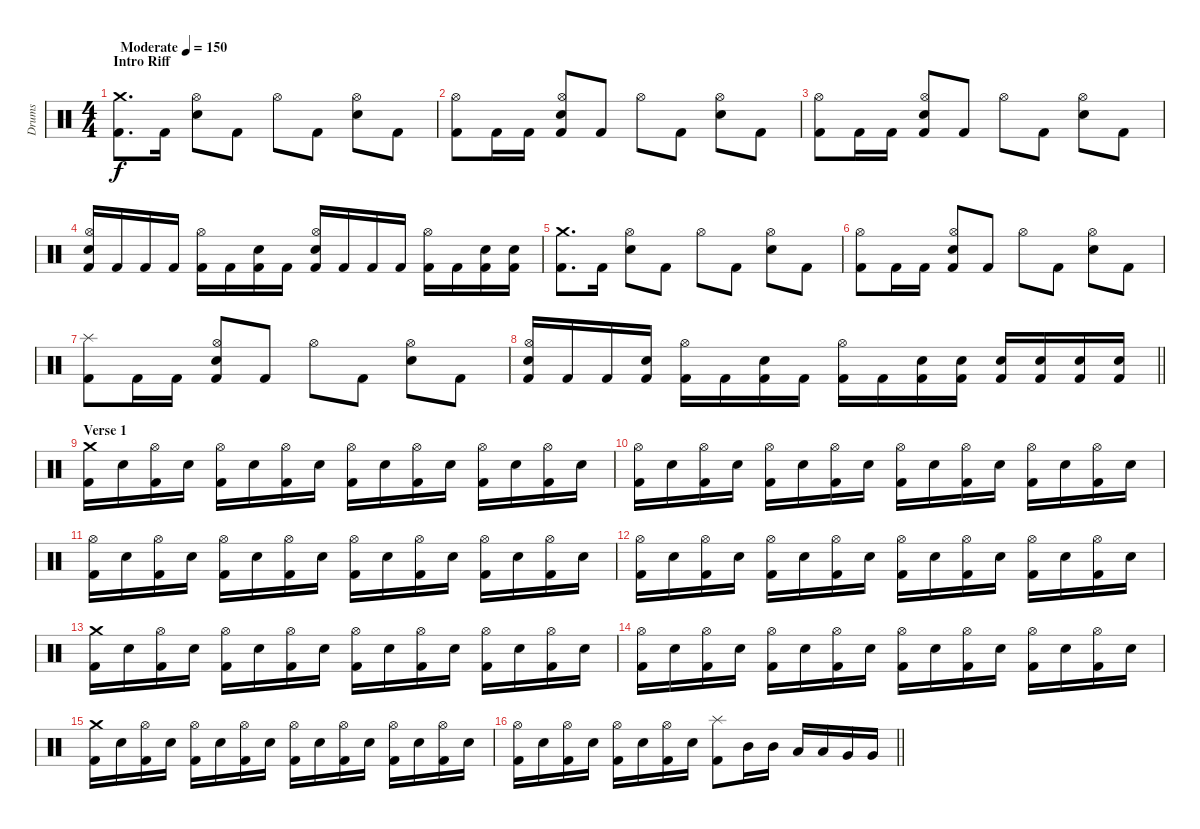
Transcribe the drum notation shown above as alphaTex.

\track ("Drums" "Drums") {instrument percussion}
\staff {score}
\articulation defaults
\ts (4 4)
\section ("" "Intro Riff")
\tempo (150 "Moderate")
\clef neutral
\ks c
("Crash medium (hit)" "Kick (hit) 2").8{d dy f} "Kick (hit) 2".16 ("Hi-Hat (open)" "Snare (hit) 2").8 "Kick (hit) 2".8 "Hi-Hat (open)".8 "Kick (hit) 2".8 ("Hi-Hat (open)" "Snare (hit) 2").8 "Kick (hit) 2".8 |
("Hi-Hat (open)" "Kick (hit) 2").8 "Kick (hit) 2".16 "Kick (hit) 2".16 ("Hi-Hat (open)" "Snare (hit) 2" "Kick (hit) 2").8 "Kick (hit) 2".8 "Hi-Hat (open)".8 "Kick (hit) 2".8 ("Hi-Hat (open)" "Snare (hit) 2").8 "Kick (hit) 2".8 |
("Hi-Hat (open)" "Kick (hit) 2").8 "Kick (hit) 2".16 "Kick (hit) 2".16 ("Hi-Hat (open)" "Snare (hit) 2" "Kick (hit) 2").8 "Kick (hit) 2".8 "Hi-Hat (open)".8 "Kick (hit) 2".8 ("Hi-Hat (open)" "Snare (hit) 2").8 "Kick (hit) 2".8 |
("Hi-Hat (open)" "Snare (hit) 2" "Kick (hit) 2").16 "Kick (hit) 2".16 "Kick (hit) 2".16 "Kick (hit) 2".16 ("Hi-Hat (open)" "Kick (hit) 2").16 "Kick (hit) 2".16 ("Snare (hit) 2" "Kick (hit) 2").16 "Kick (hit) 2".16 ("Hi-Hat (open)" "Snare (hit) 2" "Kick (hit) 2").16 "Kick (hit) 2".16 "Kick (hit) 2".16 "Kick (hit) 2".16 ("Hi-Hat (open)" "Kick (hit) 2").16 "Kick (hit) 2".16 ("Snare (hit) 2" "Kick (hit) 2").16 ("Snare (hit) 2" "Kick (hit) 2").16 |
("Crash medium (hit)" "Kick (hit) 2").8{d} "Kick (hit) 2".16 ("Hi-Hat (open)" "Snare (hit) 2").8 "Kick (hit) 2".8 "Hi-Hat (open)".8 "Kick (hit) 2".8 ("Hi-Hat (open)" "Snare (hit) 2").8 "Kick (hit) 2".8 |
("Hi-Hat (open)" "Kick (hit) 2").8 "Kick (hit) 2".16 "Kick (hit) 2".16 ("Hi-Hat (open)" "Snare (hit) 2" "Kick (hit) 2").8 "Kick (hit) 2".8 "Hi-Hat (open)".8 "Kick (hit) 2".8 ("Hi-Hat (open)" "Snare (hit) 2").8 "Kick (hit) 2".8 |
("Splash (hit)" "Kick (hit) 2").8 "Kick (hit) 2".16 "Kick (hit) 2".16 ("Hi-Hat (open)" "Snare (hit) 2" "Kick (hit) 2").8 "Kick (hit) 2".8 "Hi-Hat (open)".8 "Kick (hit) 2".8 ("Hi-Hat (open)" "Snare (hit) 2").8 "Kick (hit) 2".8 |
\barLineRight lightlight
("Hi-Hat (open)" "Snare (hit) 2" "Kick (hit) 2").16 "Kick (hit) 2".16 "Kick (hit) 2".16 ("Snare (hit) 2" "Kick (hit) 2").16 ("Hi-Hat (open)" "Kick (hit) 2").16 "Kick (hit) 2".16 ("Snare (hit) 2" "Kick (hit) 2").16 "Kick (hit) 2".16 ("Hi-Hat (open)" "Kick (hit) 2").16 "Kick (hit) 2".16 ("Snare (hit) 2" "Kick (hit) 2").16 ("Snare (hit) 2" "Kick (hit) 2").16 ("Snare (hit) 2" "Kick (hit) 2").16 ("Snare (hit) 2" "Kick (hit) 2").16 ("Snare (hit) 2" "Kick (hit) 2").16 ("Snare (hit) 2" "Kick (hit) 2").16 |
\section ("" "Verse 1")
("Crash medium (hit)" "Kick (hit) 2").16 "Snare (hit) 2".16 ("Hi-Hat (open)" "Kick (hit) 2").16 "Snare (hit) 2".16 ("Hi-Hat (open)" "Kick (hit) 2").16 "Snare (hit) 2".16 ("Hi-Hat (open)" "Kick (hit) 2").16 "Snare (hit) 2".16 ("Hi-Hat (open)" "Kick (hit) 2").16 "Snare (hit) 2".16 ("Hi-Hat (open)" "Kick (hit) 2").16 "Snare (hit) 2".16 ("Hi-Hat (open)" "Kick (hit) 2").16 "Snare (hit) 2".16 ("Hi-Hat (open)" "Kick (hit) 2").16 "Snare (hit) 2".16 |
("Hi-Hat (open)" "Kick (hit) 2").16 "Snare (hit) 2".16 ("Hi-Hat (open)" "Kick (hit) 2").16 "Snare (hit) 2".16 ("Hi-Hat (open)" "Kick (hit) 2").16 "Snare (hit) 2".16 ("Hi-Hat (open)" "Kick (hit) 2").16 "Snare (hit) 2".16 ("Hi-Hat (open)" "Kick (hit) 2").16 "Snare (hit) 2".16 ("Hi-Hat (open)" "Kick (hit) 2").16 "Snare (hit) 2".16 ("Hi-Hat (open)" "Kick (hit) 2").16 "Snare (hit) 2".16 ("Hi-Hat (open)" "Kick (hit) 2").16 "Snare (hit) 2".16 |
("Hi-Hat (open)" "Kick (hit) 2").16 "Snare (hit) 2".16 ("Hi-Hat (open)" "Kick (hit) 2").16 "Snare (hit) 2".16 ("Hi-Hat (open)" "Kick (hit) 2").16 "Snare (hit) 2".16 ("Hi-Hat (open)" "Kick (hit) 2").16 "Snare (hit) 2".16 ("Hi-Hat (open)" "Kick (hit) 2").16 "Snare (hit) 2".16 ("Hi-Hat (open)" "Kick (hit) 2").16 "Snare (hit) 2".16 ("Hi-Hat (open)" "Kick (hit) 2").16 "Snare (hit) 2".16 ("Hi-Hat (open)" "Kick (hit) 2").16 "Snare (hit) 2".16 |
("Hi-Hat (open)" "Kick (hit) 2").16 "Snare (hit) 2".16 ("Hi-Hat (open)" "Kick (hit) 2").16 "Snare (hit) 2".16 ("Hi-Hat (open)" "Kick (hit) 2").16 "Snare (hit) 2".16 ("Hi-Hat (open)" "Kick (hit) 2").16 "Snare (hit) 2".16 ("Hi-Hat (open)" "Kick (hit) 2").16 "Snare (hit) 2".16 ("Hi-Hat (open)" "Kick (hit) 2").16 "Snare (hit) 2".16 ("Hi-Hat (open)" "Kick (hit) 2").16 "Snare (hit) 2".16 ("Hi-Hat (open)" "Kick (hit) 2").16 "Snare (hit) 2".16 |
("Crash medium (hit)" "Kick (hit) 2").16 "Snare (hit) 2".16 ("Hi-Hat (open)" "Kick (hit) 2").16 "Snare (hit) 2".16 ("Hi-Hat (open)" "Kick (hit) 2").16 "Snare (hit) 2".16 ("Hi-Hat (open)" "Kick (hit) 2").16 "Snare (hit) 2".16 ("Hi-Hat (open)" "Kick (hit) 2").16 "Snare (hit) 2".16 ("Hi-Hat (open)" "Kick (hit) 2").16 "Snare (hit) 2".16 ("Hi-Hat (open)" "Kick (hit) 2").16 "Snare (hit) 2".16 ("Hi-Hat (open)" "Kick (hit) 2").16 "Snare (hit) 2".16 |
("Hi-Hat (open)" "Kick (hit) 2").16 "Snare (hit) 2".16 ("Hi-Hat (open)" "Kick (hit) 2").16 "Snare (hit) 2".16 ("Hi-Hat (open)" "Kick (hit) 2").16 "Snare (hit) 2".16 ("Hi-Hat (open)" "Kick (hit) 2").16 "Snare (hit) 2".16 ("Hi-Hat (open)" "Kick (hit) 2").16 "Snare (hit) 2".16 ("Hi-Hat (open)" "Kick (hit) 2").16 "Snare (hit) 2".16 ("Hi-Hat (open)" "Kick (hit) 2").16 "Snare (hit) 2".16 ("Hi-Hat (open)" "Kick (hit) 2").16 "Snare (hit) 2".16 |
("Crash medium (hit)" "Kick (hit) 2").16 "Snare (hit) 2".16 ("Hi-Hat (open)" "Kick (hit) 2").16 "Snare (hit) 2".16 ("Hi-Hat (open)" "Kick (hit) 2").16 "Snare (hit) 2".16 ("Hi-Hat (open)" "Kick (hit) 2").16 "Snare (hit) 2".16 ("Hi-Hat (open)" "Kick (hit) 2").16 "Snare (hit) 2".16 ("Hi-Hat (open)" "Kick (hit) 2").16 "Snare (hit) 2".16 ("Hi-Hat (open)" "Kick (hit) 2").16 "Snare (hit) 2".16 ("Hi-Hat (open)" "Kick (hit) 2").16 "Snare (hit) 2".16 |
\barLineRight lightlight
("Hi-Hat (open)" "Kick (hit) 2").16 "Snare (hit) 2".16 ("Hi-Hat (open)" "Kick (hit) 2").16 "Snare (hit) 2".16 ("Hi-Hat (open)" "Kick (hit) 2").16 "Snare (hit) 2".16 ("Hi-Hat (open)" "Kick (hit) 2").16 "Snare (hit) 2".16 ("Splash (hit)" "Kick (hit) 2").8 "Mid Tom (hit)".16 "Mid Tom (hit)".16 "Low Tom (hit)".16 "Low Tom (hit)".16 "Very Low Tom (hit)".16 "Very Low Tom (hit)".16
